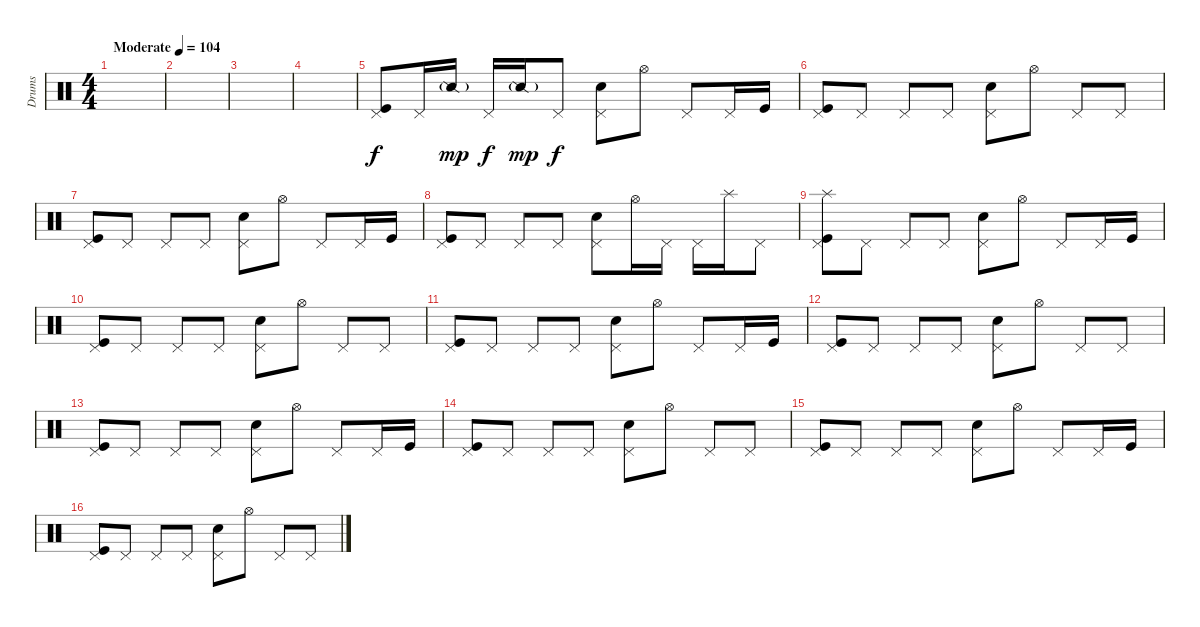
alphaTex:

\track ("Drums" "Drums") {instrument percussion}
\staff {score}
\articulation defaults
\ts (4 4)
\tempo (104 "Moderate")
\clef neutral
\ks c
|
|
|
|
("Pedal Hi-Hat (hit)" "Kick (hit)").8 "Pedal Hi-Hat (hit)".16 "Snare (side stick) 2"{g}.16{dy mp} "Pedal Hi-Hat (hit)".16{dy f} "Snare (side stick) 2"{g}.16{dy mp} "Pedal Hi-Hat (hit)".8{dy f} ("Pedal Hi-Hat (hit)" "Snare (hit) 2").8 "Hi-Hat (open)".8 "Pedal Hi-Hat (hit)".8 "Pedal Hi-Hat (hit)".16 "Kick (hit)".16 |
("Pedal Hi-Hat (hit)" "Kick (hit)").8 "Pedal Hi-Hat (hit)".8 "Pedal Hi-Hat (hit)".8 "Pedal Hi-Hat (hit)".8 ("Pedal Hi-Hat (hit)" "Snare (hit) 2").8 "Hi-Hat (open)".8 "Pedal Hi-Hat (hit)".8 "Pedal Hi-Hat (hit)".8 |
("Pedal Hi-Hat (hit)" "Kick (hit)").8 "Pedal Hi-Hat (hit)".8 "Pedal Hi-Hat (hit)".8 "Pedal Hi-Hat (hit)".8 ("Pedal Hi-Hat (hit)" "Snare (hit) 2").8 "Hi-Hat (open)".8 "Pedal Hi-Hat (hit)".8 "Pedal Hi-Hat (hit)".16 "Kick (hit)".16 |
("Pedal Hi-Hat (hit)" "Kick (hit)").8 "Pedal Hi-Hat (hit)".8 "Pedal Hi-Hat (hit)".8 "Pedal Hi-Hat (hit)".8 ("Pedal Hi-Hat (hit)" "Snare (hit) 2").8 "Hi-Hat (open)".16 "Pedal Hi-Hat (hit)".16 "Pedal Hi-Hat (hit)".16 "Splash (hit)".16 "Pedal Hi-Hat (hit)".8 |
("Pedal Hi-Hat (hit)" "Splash (hit)" "Kick (hit)").8 "Pedal Hi-Hat (hit)".8 "Pedal Hi-Hat (hit)".8 "Pedal Hi-Hat (hit)".8 ("Pedal Hi-Hat (hit)" "Snare (hit) 2").8 "Hi-Hat (open)".8 "Pedal Hi-Hat (hit)".8 "Pedal Hi-Hat (hit)".16 "Kick (hit)".16 |
("Pedal Hi-Hat (hit)" "Kick (hit)").8 "Pedal Hi-Hat (hit)".8 "Pedal Hi-Hat (hit)".8 "Pedal Hi-Hat (hit)".8 ("Pedal Hi-Hat (hit)" "Snare (hit) 2").8 "Hi-Hat (open)".8 "Pedal Hi-Hat (hit)".8 "Pedal Hi-Hat (hit)".8 |
("Pedal Hi-Hat (hit)" "Kick (hit)").8 "Pedal Hi-Hat (hit)".8 "Pedal Hi-Hat (hit)".8 "Pedal Hi-Hat (hit)".8 ("Pedal Hi-Hat (hit)" "Snare (hit) 2").8 "Hi-Hat (open)".8 "Pedal Hi-Hat (hit)".8 "Pedal Hi-Hat (hit)".16 "Kick (hit)".16 |
("Pedal Hi-Hat (hit)" "Kick (hit)").8 "Pedal Hi-Hat (hit)".8 "Pedal Hi-Hat (hit)".8 "Pedal Hi-Hat (hit)".8 ("Pedal Hi-Hat (hit)" "Snare (hit) 2").8 "Hi-Hat (open)".8 "Pedal Hi-Hat (hit)".8 "Pedal Hi-Hat (hit)".8 |
("Pedal Hi-Hat (hit)" "Kick (hit)").8 "Pedal Hi-Hat (hit)".8 "Pedal Hi-Hat (hit)".8 "Pedal Hi-Hat (hit)".8 ("Pedal Hi-Hat (hit)" "Snare (hit) 2").8 "Hi-Hat (open)".8 "Pedal Hi-Hat (hit)".8 "Pedal Hi-Hat (hit)".16 "Kick (hit)".16 |
("Pedal Hi-Hat (hit)" "Kick (hit)").8 "Pedal Hi-Hat (hit)".8 "Pedal Hi-Hat (hit)".8 "Pedal Hi-Hat (hit)".8 ("Pedal Hi-Hat (hit)" "Snare (hit) 2").8 "Hi-Hat (open)".8 "Pedal Hi-Hat (hit)".8 "Pedal Hi-Hat (hit)".8 |
("Pedal Hi-Hat (hit)" "Kick (hit)").8 "Pedal Hi-Hat (hit)".8 "Pedal Hi-Hat (hit)".8 "Pedal Hi-Hat (hit)".8 ("Pedal Hi-Hat (hit)" "Snare (hit) 2").8 "Hi-Hat (open)".8 "Pedal Hi-Hat (hit)".8 "Pedal Hi-Hat (hit)".16 "Kick (hit)".16 |
("Pedal Hi-Hat (hit)" "Kick (hit)").8 "Pedal Hi-Hat (hit)".8 "Pedal Hi-Hat (hit)".8 "Pedal Hi-Hat (hit)".8 ("Pedal Hi-Hat (hit)" "Snare (hit) 2").8 "Hi-Hat (open)".8 "Pedal Hi-Hat (hit)".8 "Pedal Hi-Hat (hit)".8
